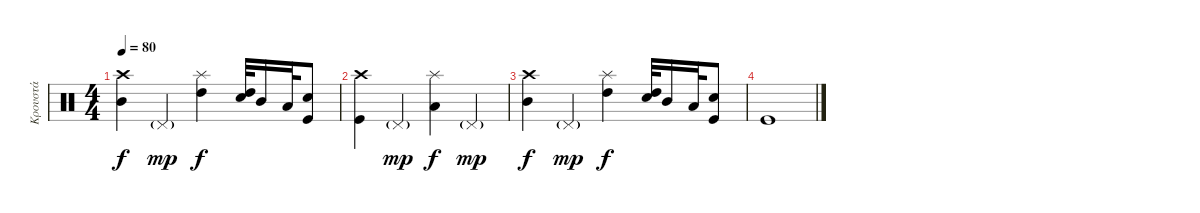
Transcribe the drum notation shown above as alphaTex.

\track ("Κρουστά" "Κρουστά") {instrument percussion}
\staff {score}
\articulation defaults
\ts (4 4)
\tempo 80
\clef neutral
\ks c
("Mid Tom (hit)" "Crash high (hit)").4{dy f} "Pedal Hi-Hat (hit)"{g}.4{dy mp} ("High Tom (hit)" "Splash (hit)").4{dy f} ("High Tom (hit)" "Snare (hit) 2").32 "Mid Tom (hit)".16 "Low Tom (hit)".32 ("Kick (hit)" "Snare (hit) 2").8 |
("Kick (hit)" "Crash high (hit)").4 "Pedal Hi-Hat (hit)"{g}.4{dy mp} ("Low Tom (hit)" "Splash (hit)").4{dy f} "Pedal Hi-Hat (hit)"{g}.4{dy mp} |
("Mid Tom (hit)" "Crash high (hit)").4{dy f} "Pedal Hi-Hat (hit)"{g}.4{dy mp} ("High Tom (hit)" "Splash (hit)").4{dy f} ("High Tom (hit)" "Snare (hit) 2").32 "Mid Tom (hit)".16 "Low Tom (hit)".32 ("Kick (hit)" "Snare (hit) 2").8 |
"Kick (hit)".1
